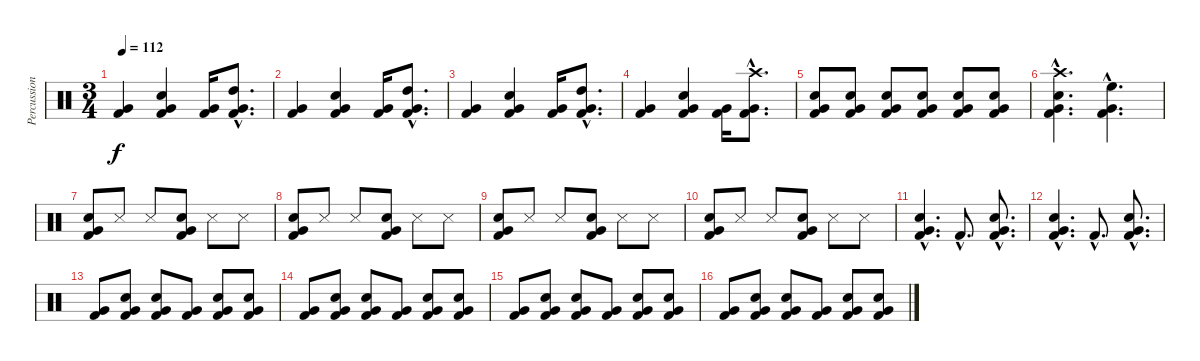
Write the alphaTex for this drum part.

\track ("Percussions" "Percussion") {instrument percussion}
\staff {score}
\articulation defaults
\ts (3 4)
\tempo 112
\clef neutral
\ks c
("Kick (hit) 2" "Very Low Tom (hit)").4{dy f} ("Kick (hit) 2" "Very Low Tom (hit)" "Electric Snare (hit)").4 ("Kick (hit) 2" "Very Low Tom (hit)").16 ("High Tom (hit)"{hac} "Kick (hit) 2"{hac} "Very Low Tom (hit)"{hac}).8{d} |
("Kick (hit) 2" "Very Low Tom (hit)").4 ("Kick (hit) 2" "Very Low Tom (hit)" "Electric Snare (hit)").4 ("Kick (hit) 2" "Very Low Tom (hit)").16 ("High Tom (hit)"{hac} "Kick (hit) 2"{hac} "Very Low Tom (hit)"{hac}).8{d} |
("Kick (hit) 2" "Very Low Tom (hit)").4 ("Kick (hit) 2" "Very Low Tom (hit)" "Electric Snare (hit)").4 ("Kick (hit) 2" "Very Low Tom (hit)").16 ("High Tom (hit)"{hac} "Kick (hit) 2"{hac} "Very Low Tom (hit)"{hac}).8{d} |
("Kick (hit) 2" "Very Low Tom (hit)").4 ("Kick (hit) 2" "Very Low Tom (hit)" "Electric Snare (hit)").4 ("Kick (hit) 2" "Very Low Tom (hit)").16 ("Crash high (hit)"{hac} "Kick (hit) 2"{hac} "Very Low Tom (hit)"{hac}).8{d} |
("Kick (hit) 2" "Very Low Tom (hit)" "Electric Snare (hit)").8 ("Kick (hit) 2" "Very Low Tom (hit)" "Electric Snare (hit)").8 ("Kick (hit) 2" "Very Low Tom (hit)" "Electric Snare (hit)").8 ("Kick (hit) 2" "Very Low Tom (hit)" "Electric Snare (hit)").8 ("Kick (hit) 2" "Very Low Tom (hit)" "Electric Snare (hit)").8 ("Kick (hit) 2" "Very Low Tom (hit)" "Electric Snare (hit)").8 |
("Crash high (hit)"{hac} "Kick (hit) 2"{hac} "Very Low Tom (hit)"{hac} "Electric Snare (hit)"{hac}).4{d} ("Kick (hit) 2"{hac} "Very Low Tom (hit)"{hac} "High Floor Tom (hit)"{hac}).4{d} |
("Kick (hit) 2" "Very Low Tom (hit)" "Electric Snare (hit)").8 "Snare (side stick) 3".8 "Snare (side stick) 3".8 ("Kick (hit) 2" "Very Low Tom (hit)" "Electric Snare (hit)").8 "Snare (side stick) 3".8 "Snare (side stick) 3".8 |
("Kick (hit) 2" "Very Low Tom (hit)" "Electric Snare (hit)").8 "Snare (side stick) 3".8 "Snare (side stick) 3".8 ("Kick (hit) 2" "Very Low Tom (hit)" "Electric Snare (hit)").8 "Snare (side stick) 3".8 "Snare (side stick) 3".8 |
("Kick (hit) 2" "Very Low Tom (hit)" "Electric Snare (hit)").8 "Snare (side stick) 3".8 "Snare (side stick) 3".8 ("Kick (hit) 2" "Very Low Tom (hit)" "Electric Snare (hit)").8 "Snare (side stick) 3".8 "Snare (side stick) 3".8 |
("Kick (hit) 2" "Very Low Tom (hit)" "Electric Snare (hit)").8 "Snare (side stick) 3".8 "Snare (side stick) 3".8 ("Kick (hit) 2" "Very Low Tom (hit)" "Electric Snare (hit)").8 "Snare (side stick) 3".8 "Snare (side stick) 3".8 |
("Kick (hit) 2"{hac} "Very Low Tom (hit)"{hac} "Electric Snare (hit)"{hac}).4{d} "Kick (hit) 2"{hac}.8{d} ("Kick (hit) 2"{hac} "Very Low Tom (hit)"{hac} "Electric Snare (hit)"{hac}).8{d} |
("Kick (hit) 2"{hac} "Very Low Tom (hit)"{hac} "Electric Snare (hit)"{hac}).4{d} "Kick (hit) 2"{hac}.8{d} ("Kick (hit) 2"{hac} "Very Low Tom (hit)"{hac} "Electric Snare (hit)"{hac}).8{d} |
("Kick (hit) 2" "Very Low Tom (hit)").8 ("Kick (hit) 2" "Very Low Tom (hit)" "Electric Snare (hit)").8 ("Kick (hit) 2" "Very Low Tom (hit)" "Electric Snare (hit)").8 ("Kick (hit) 2" "Very Low Tom (hit)").8 ("Kick (hit) 2" "Very Low Tom (hit)" "Electric Snare (hit)").8 ("Kick (hit) 2" "Very Low Tom (hit)" "Electric Snare (hit)").8 |
("Kick (hit) 2" "Very Low Tom (hit)").8 ("Kick (hit) 2" "Very Low Tom (hit)" "Electric Snare (hit)").8 ("Kick (hit) 2" "Very Low Tom (hit)" "Electric Snare (hit)").8 ("Kick (hit) 2" "Very Low Tom (hit)").8 ("Kick (hit) 2" "Very Low Tom (hit)" "Electric Snare (hit)").8 ("Kick (hit) 2" "Very Low Tom (hit)" "Electric Snare (hit)").8 |
("Kick (hit) 2" "Very Low Tom (hit)").8 ("Kick (hit) 2" "Very Low Tom (hit)" "Electric Snare (hit)").8 ("Kick (hit) 2" "Very Low Tom (hit)" "Electric Snare (hit)").8 ("Kick (hit) 2" "Very Low Tom (hit)").8 ("Kick (hit) 2" "Very Low Tom (hit)" "Electric Snare (hit)").8 ("Kick (hit) 2" "Very Low Tom (hit)" "Electric Snare (hit)").8 |
("Kick (hit) 2" "Very Low Tom (hit)").8 ("Kick (hit) 2" "Very Low Tom (hit)" "Electric Snare (hit)").8 ("Kick (hit) 2" "Very Low Tom (hit)" "Electric Snare (hit)").8 ("Kick (hit) 2" "Very Low Tom (hit)").8 ("Kick (hit) 2" "Very Low Tom (hit)" "Electric Snare (hit)").8 ("Kick (hit) 2" "Very Low Tom (hit)" "Electric Snare (hit)").8
